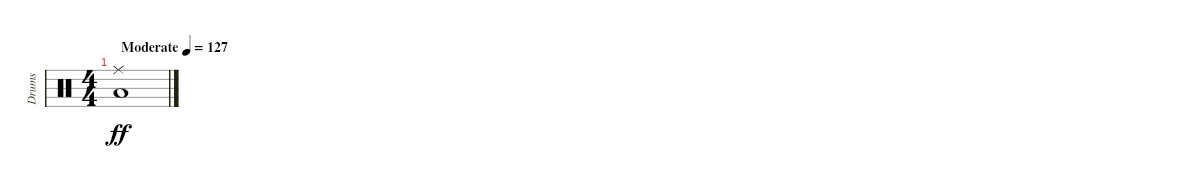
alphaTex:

\track ("Drums" "Drums") {instrument percussion}
\staff {score}
\articulation defaults
\ts (4 4)
\tempo (127 "Moderate")
\clef neutral
\ks c
("Ride (middle)" "Low Tom (hit)").1{dy ff}
